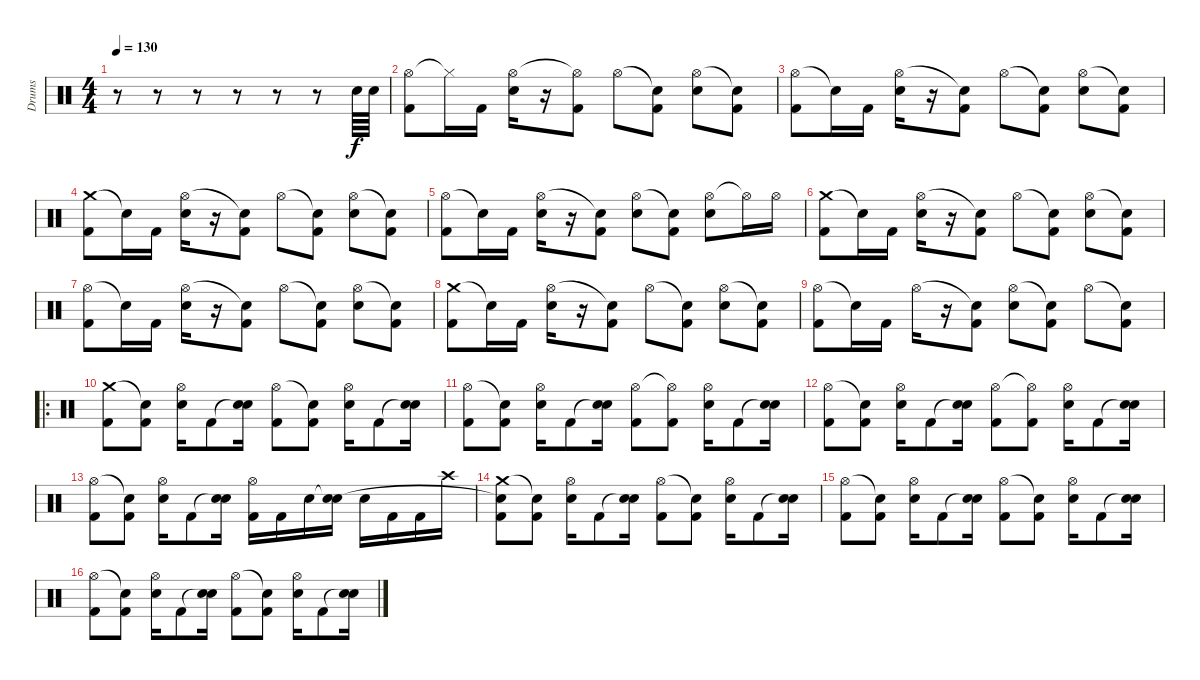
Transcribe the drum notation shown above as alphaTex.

\track ("Drums" "Drums") {instrument percussion}
\staff {score}
\articulation defaults
\ts (4 4)
\tempo 130
\clef neutral
\ks c
r.8{dy f} r.8 r.8 r.8 r.8 r.8 "Electric Snare (hit)".64 "Electric Snare (hit)".64 |
("Hi-Hat (open)" "Kick (hit) 2").8 "Hi-Hat (closed)"{t}.16 "Kick (hit) 2".16 ("Hi-Hat (open)" "Electric Snare (hit)").16 r.16 ("Hi-Hat (open)"{t} "Kick (hit) 2").8 "Hi-Hat (open)".8 ("Snare (hit)"{t} "Kick (hit) 2").8 ("Hi-Hat (open)" "Electric Snare (hit)").8 ("Snare (hit)"{t} "Kick (hit) 2").8 |
("Hi-Hat (open)" "Kick (hit) 2").8 "Snare (hit)"{t}.16 "Kick (hit) 2".16 ("Hi-Hat (open)" "Electric Snare (hit)").16 r.16 ("Snare (hit)"{t} "Kick (hit) 2").8 "Hi-Hat (open)".8 ("Snare (hit)"{t} "Kick (hit) 2").8 ("Hi-Hat (open)" "Electric Snare (hit)").8 ("Snare (hit)"{t} "Kick (hit) 2").8 |
("Crash medium (hit)" "Kick (hit) 2").8 "Snare (hit)"{t}.16 "Kick (hit) 2".16 ("Hi-Hat (open)" "Electric Snare (hit)").16 r.16 ("Snare (hit)"{t} "Kick (hit) 2").8 "Hi-Hat (open)".8 ("Snare (hit)"{t} "Kick (hit) 2").8 ("Hi-Hat (open)" "Electric Snare (hit)").8 ("Snare (hit)"{t} "Kick (hit) 2").8 |
("Hi-Hat (open)" "Kick (hit) 2").8 "Snare (hit)"{t}.16 "Kick (hit) 2".16 ("Hi-Hat (open)" "Electric Snare (hit)").16 r.16 ("Snare (hit)"{t} "Kick (hit) 2").8 ("Hi-Hat (open)" "Electric Snare (hit)").8 ("Snare (hit)"{t} "Kick (hit) 2").8 ("Hi-Hat (open)" "Electric Snare (hit)").8 "Hi-Hat (open)"{t}.16 "Hi-Hat (open)".16 |
("Crash medium (hit)" "Kick (hit) 2").8 "Snare (hit)"{t}.16 "Kick (hit) 2".16 ("Hi-Hat (open)" "Electric Snare (hit)").16 r.16 ("Snare (hit)"{t} "Kick (hit) 2").8 "Hi-Hat (open)".8 ("Snare (hit)"{t} "Kick (hit) 2").8 ("Hi-Hat (open)" "Electric Snare (hit)").8 ("Snare (hit)"{t} "Kick (hit) 2").8 |
("Hi-Hat (open)" "Kick (hit) 2").8 "Snare (hit)"{t}.16 "Kick (hit) 2".16 ("Hi-Hat (open)" "Electric Snare (hit)").16 r.16 ("Snare (hit)"{t} "Kick (hit) 2").8 "Hi-Hat (open)".8 ("Snare (hit)"{t} "Kick (hit) 2").8 ("Hi-Hat (open)" "Electric Snare (hit)").8 ("Snare (hit)"{t} "Kick (hit) 2").8 |
("Crash medium (hit)" "Kick (hit) 2").8 "Snare (hit)"{t}.16 "Kick (hit) 2".16 ("Hi-Hat (open)" "Electric Snare (hit)").16 r.16 ("Snare (hit)"{t} "Kick (hit) 2").8 "Hi-Hat (open)".8 ("Snare (hit)"{t} "Kick (hit) 2").8 ("Hi-Hat (open)" "Electric Snare (hit)").8 ("Snare (hit)"{t} "Kick (hit) 2").8 |
("Hi-Hat (open)" "Kick (hit) 2").8 "Snare (hit)"{t}.16 "Kick (hit) 2".16 "Hi-Hat (open)".16 r.16 ("Snare (hit)"{t} "Kick (hit) 2").8 ("Hi-Hat (open)" "Electric Snare (hit)").8 ("Snare (hit)"{t} "Kick (hit) 2").8 "Hi-Hat (open)".8 ("Snare (hit)"{t} "Kick (hit) 2").8 |
\ro
("Crash medium (hit)" "Kick (hit) 2").8 ("Snare (hit)"{t} "Kick (hit) 2").8 ("Hi-Hat (open)" "Electric Snare (hit)").16 "Kick (hit) 2".8 ("Snare (hit)"{t} "Electric Snare (hit)").16 ("Hi-Hat (open)" "Kick (hit) 2").8 ("Snare (hit)"{t} "Kick (hit) 2").8 ("Hi-Hat (open)" "Electric Snare (hit)").16 "Kick (hit) 2".8 ("Snare (hit)"{t} "Electric Snare (hit)").16 |
("Hi-Hat (open)" "Kick (hit) 2").8 ("Snare (hit)"{t} "Kick (hit) 2").8 ("Hi-Hat (open)" "Electric Snare (hit)").16 "Kick (hit) 2".8 ("Snare (hit)"{t} "Electric Snare (hit)").16 ("Hi-Hat (open)" "Kick (hit) 2").8 ("Hi-Hat (open)"{t} "Kick (hit) 2").8 ("Hi-Hat (open)" "Electric Snare (hit)").16 "Kick (hit) 2".8 ("Snare (hit)"{t} "Electric Snare (hit)").16 |
("Hi-Hat (open)" "Kick (hit) 2").8 ("Snare (hit)"{t} "Kick (hit) 2").8 ("Hi-Hat (open)" "Electric Snare (hit)").16 "Kick (hit) 2".8 ("Snare (hit)"{t} "Electric Snare (hit)").16 ("Hi-Hat (open)" "Kick (hit) 2").8 ("Hi-Hat (open)"{t} "Kick (hit) 2").8 ("Hi-Hat (open)" "Electric Snare (hit)").16 "Kick (hit) 2".8 ("Snare (hit)"{t} "Electric Snare (hit)").16 |
("Hi-Hat (open)" "Kick (hit) 2").8 ("Snare (hit)"{t} "Kick (hit) 2").8 ("Hi-Hat (open)" "Electric Snare (hit)").16 "Kick (hit) 2".8 ("Snare (hit)"{t} "Electric Snare (hit)").16 ("Hi-Hat (open)" "Kick (hit) 2").16 "Kick (hit) 2".16 "Electric Snare (hit)".16 ("Snare (hit)"{t} "Electric Snare (hit)").16 "Electric Snare (hit)".16 "Kick (hit) 2".16 "Kick (hit) 2".16 "Crash high (hit)".16 |
("Crash medium (hit)" "Snare (hit)"{t} "Kick (hit) 2").8 ("Snare (hit)"{t} "Kick (hit) 2").8 ("Hi-Hat (open)" "Electric Snare (hit)").16 "Kick (hit) 2".8 ("Snare (hit)"{t} "Electric Snare (hit)").16 ("Hi-Hat (open)" "Kick (hit) 2").8 ("Snare (hit)"{t} "Kick (hit) 2").8 ("Hi-Hat (open)" "Electric Snare (hit)").16 "Kick (hit) 2".8 ("Snare (hit)"{t} "Electric Snare (hit)").16 |
("Hi-Hat (open)" "Kick (hit) 2").8 ("Snare (hit)"{t} "Kick (hit) 2").8 ("Hi-Hat (open)" "Electric Snare (hit)").16 "Kick (hit) 2".8 ("Snare (hit)"{t} "Electric Snare (hit)").16 ("Hi-Hat (open)" "Kick (hit) 2").8 ("Snare (hit)"{t} "Kick (hit) 2").8 ("Hi-Hat (open)" "Electric Snare (hit)").16 "Kick (hit) 2".8 ("Snare (hit)"{t} "Electric Snare (hit)").16 |
("Hi-Hat (open)" "Kick (hit) 2").8 ("Snare (hit)"{t} "Kick (hit) 2").8 ("Hi-Hat (open)" "Electric Snare (hit)").16 "Kick (hit) 2".8 ("Snare (hit)"{t} "Electric Snare (hit)").16 ("Hi-Hat (open)" "Kick (hit) 2").8 ("Snare (hit)"{t} "Kick (hit) 2").8 ("Hi-Hat (open)" "Electric Snare (hit)").16 "Kick (hit) 2".8 ("Snare (hit)"{t} "Electric Snare (hit)").16
